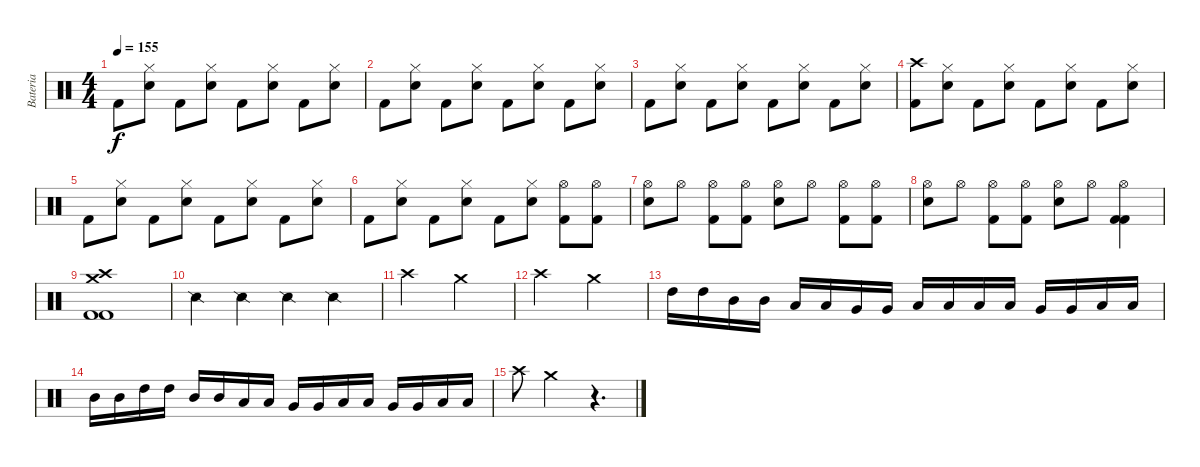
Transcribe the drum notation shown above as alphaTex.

\track ("Bateria" "Bateria") {instrument percussion}
\staff {score}
\articulation defaults
\ts (4 4)
\tempo 155
\clef neutral
\ks c "Kick (hit) 2".8{dy f}
("Electric Snare (hit)" "Hi-Hat (closed)").8 "Kick (hit) 2".8 ("Electric Snare (hit)" "Hi-Hat (closed)").8 "Kick (hit) 2".8 ("Electric Snare (hit)" "Hi-Hat (closed)").8 "Kick (hit) 2".8 ("Electric Snare (hit)" "Hi-Hat (closed)").8 |
"Kick (hit) 2".8 ("Electric Snare (hit)" "Hi-Hat (closed)").8 "Kick (hit) 2".8 ("Electric Snare (hit)" "Hi-Hat (closed)").8 "Kick (hit) 2".8 ("Electric Snare (hit)" "Hi-Hat (closed)").8 "Kick (hit) 2".8 ("Electric Snare (hit)" "Hi-Hat (closed)").8 |
"Kick (hit) 2".8 ("Electric Snare (hit)" "Hi-Hat (closed)").8 "Kick (hit) 2".8 ("Electric Snare (hit)" "Hi-Hat (closed)").8 "Kick (hit) 2".8 ("Electric Snare (hit)" "Hi-Hat (closed)").8 "Kick (hit) 2".8 ("Electric Snare (hit)" "Hi-Hat (closed)").8 |
("Kick (hit) 2" "Crash high (hit)").8 ("Electric Snare (hit)" "Hi-Hat (closed)").8 "Kick (hit) 2".8 ("Electric Snare (hit)" "Hi-Hat (closed)").8 "Kick (hit) 2".8 ("Electric Snare (hit)" "Hi-Hat (closed)").8 "Kick (hit) 2".8 ("Electric Snare (hit)" "Hi-Hat (closed)").8 |
"Kick (hit) 2".8 ("Electric Snare (hit)" "Hi-Hat (closed)").8 "Kick (hit) 2".8 ("Electric Snare (hit)" "Hi-Hat (closed)").8 "Kick (hit) 2".8 ("Electric Snare (hit)" "Hi-Hat (closed)").8 "Kick (hit) 2".8 ("Electric Snare (hit)" "Hi-Hat (closed)").8 |
"Kick (hit) 2".8 ("Electric Snare (hit)" "Hi-Hat (closed)").8 "Kick (hit) 2".8 ("Electric Snare (hit)" "Hi-Hat (closed)").8 "Kick (hit) 2".8 ("Electric Snare (hit)" "Hi-Hat (closed)").8 ("Kick (hit) 2" "Hi-Hat (open)").8 ("Kick (hit) 2" "Hi-Hat (open)").8 |
("Electric Snare (hit)" "Hi-Hat (open)").8 "Hi-Hat (open)".8 ("Kick (hit) 2" "Hi-Hat (open)").8 ("Kick (hit) 2" "Hi-Hat (open)").8 ("Electric Snare (hit)" "Hi-Hat (open)").8 "Hi-Hat (open)".8 ("Kick (hit) 2" "Hi-Hat (open)").8 ("Kick (hit) 2" "Hi-Hat (open)").8 |
("Electric Snare (hit)" "Hi-Hat (open)").8 "Hi-Hat (open)".8 ("Kick (hit) 2" "Hi-Hat (open)").8 ("Kick (hit) 2" "Hi-Hat (open)").8 ("Electric Snare (hit)" "Hi-Hat (open)").8 "Hi-Hat (open)".8 ("Kick (hit) 2" "Kick (hit) 2" "Hi-Hat (open)").4 |
("Kick (hit) 2" "Kick (hit) 2" "Crash high (hit)" "Crash medium (hit)").1 |
"Snare (side stick) 2".4 "Snare (side stick) 2".4 "Snare (side stick) 2".4 "Snare (side stick) 2".4 |
"Crash high (hit)".2 "Crash medium (hit)".2 |
"Crash high (hit)".2 "Crash medium (hit)".2 |
"High Tom (hit)".16 "High Tom (hit)".16 "Mid Tom (hit)".16 "Mid Tom (hit)".16 "Low Tom (hit)".16 "Low Tom (hit)".16 "Very Low Tom (hit)".16 "Very Low Tom (hit)".16 "Low Floor Tom (hit)".16 "Low Floor Tom (hit)".16 "Low Floor Tom (hit)".16 "Low Floor Tom (hit)".16 "Very Low Tom (hit)".16 "Very Low Tom (hit)".16 "Low Tom (hit)".16 "Low Tom (hit)".16 |
"Mid Tom (hit)".16 "Mid Tom (hit)".16 "High Tom (hit)".16 "High Tom (hit)".16 "Mid Tom (hit)".16 "Mid Tom (hit)".16 "Low Tom (hit)".16 "Low Tom (hit)".16 "Very Low Tom (hit)".16 "Very Low Tom (hit)".16 "Low Floor Tom (hit)".16 "Low Floor Tom (hit)".16 "Very Low Tom (hit)".16 "Very Low Tom (hit)".16 "Low Tom (hit)".16 "Low Tom (hit)".16 |
"Crash high (hit)".8 "Crash medium (hit)".2 r.4{d}
